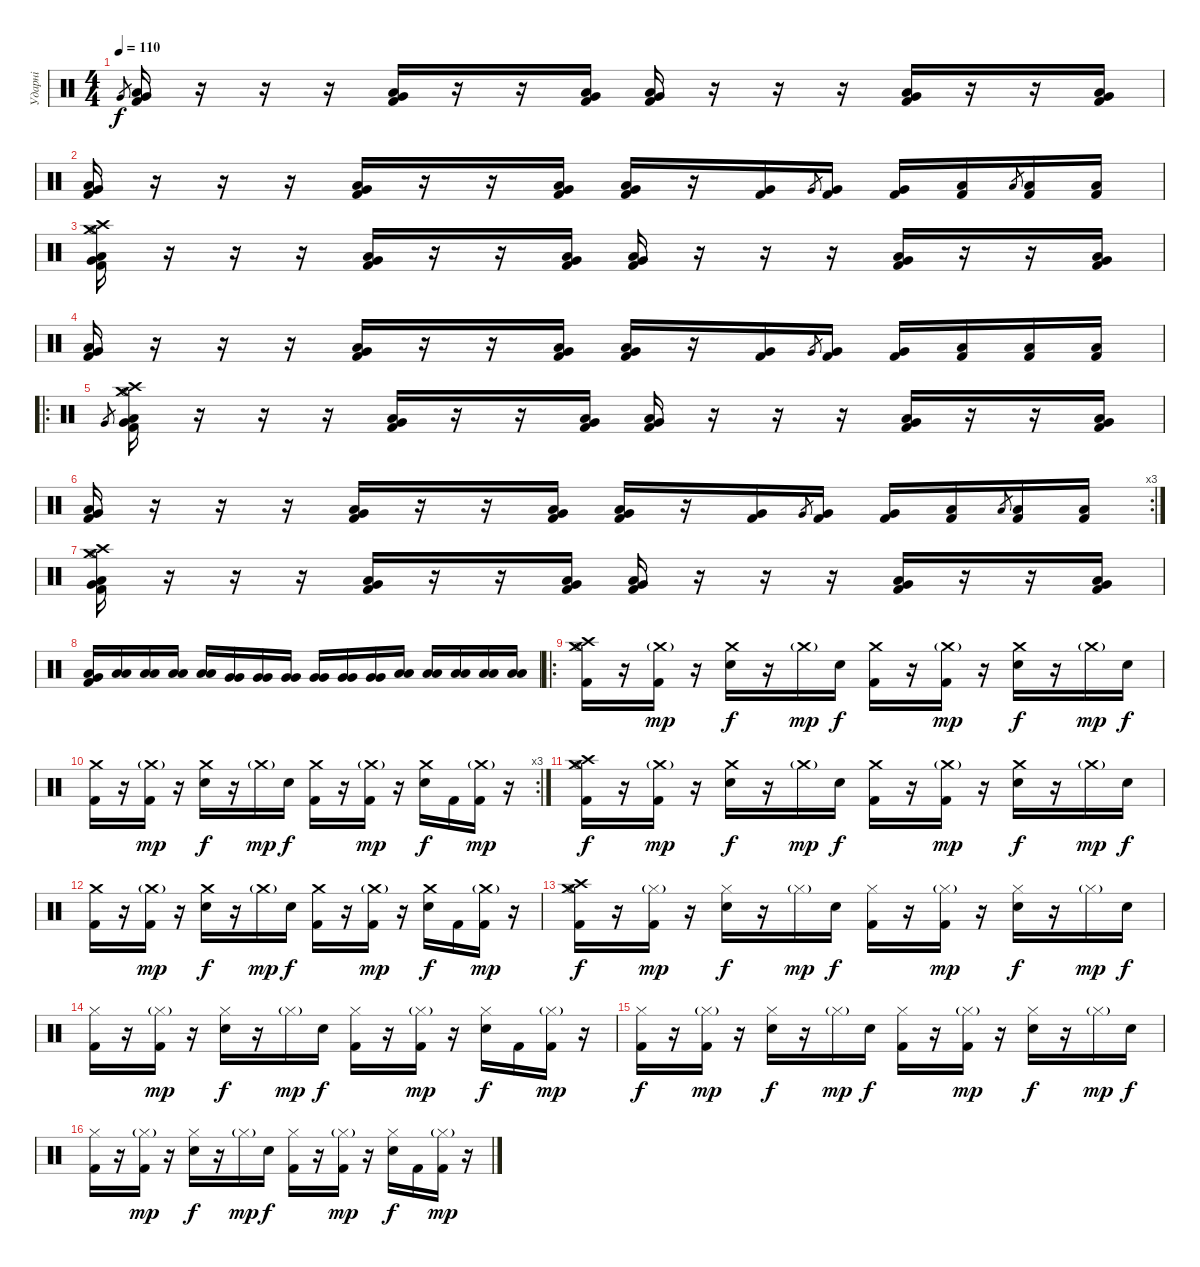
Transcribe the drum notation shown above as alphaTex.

\track ("Ударні" "Ударні") {instrument percussion}
\staff {score}
\articulation defaults
\ts (4 4)
\tempo 110
\clef neutral
\ks c "Very Low Tom (hit)".8{gr dy f}
("Low Floor Tom (hit)" "Kick (hit) 2" "Very Low Tom (hit)").16 r.16 r.16 r.16 ("Very Low Tom (hit)" "Low Floor Tom (hit)" "Kick (hit) 2").16 r.16 r.16 ("Low Floor Tom (hit)" "Kick (hit) 2" "Very Low Tom (hit)").16 ("Kick (hit) 2" "Low Floor Tom (hit)" "Very Low Tom (hit)").16 r.16 r.16 r.16 ("Very Low Tom (hit)" "Low Floor Tom (hit)" "Kick (hit) 2").16 r.16 r.16 ("Kick (hit) 2" "Low Floor Tom (hit)" "Very Low Tom (hit)").16 |
("Low Floor Tom (hit)" "Kick (hit) 2" "Very Low Tom (hit)").16 r.16 r.16 r.16 ("Very Low Tom (hit)" "Low Floor Tom (hit)" "Kick (hit) 2").16 r.16 r.16 ("Low Floor Tom (hit)" "Kick (hit) 2" "Very Low Tom (hit)").16 ("Kick (hit) 2" "Low Floor Tom (hit)" "Very Low Tom (hit)").16 r.16 ("Kick (hit) 2" "Very Low Tom (hit)").16 "Very Low Tom (hit)".8{gr} ("Kick (hit) 2" "Very Low Tom (hit)").16 ("Kick (hit) 2" "Very Low Tom (hit)").16 ("Kick (hit) 2" "Low Floor Tom (hit)").16 "Low Floor Tom (hit)".8{gr} ("Kick (hit) 2" "Low Floor Tom (hit)").16 ("Kick (hit) 2" "Low Floor Tom (hit)").16 |
("Low Floor Tom (hit)" "Kick (hit) 2" "Very Low Tom (hit)" "Hi-Hat (open)" "Crash medium (hit)" "Crash high (hit)").16 r.16 r.16 r.16 ("Very Low Tom (hit)" "Low Floor Tom (hit)" "Kick (hit) 2").16 r.16 r.16 ("Low Floor Tom (hit)" "Kick (hit) 2" "Very Low Tom (hit)").16 ("Kick (hit) 2" "Low Floor Tom (hit)" "Very Low Tom (hit)").16 r.16 r.16 r.16 ("Very Low Tom (hit)" "Low Floor Tom (hit)" "Kick (hit) 2").16 r.16 r.16 ("Kick (hit) 2" "Low Floor Tom (hit)" "Very Low Tom (hit)").16 |
("Low Floor Tom (hit)" "Kick (hit) 2" "Very Low Tom (hit)").16 r.16 r.16 r.16 ("Very Low Tom (hit)" "Low Floor Tom (hit)" "Kick (hit) 2").16 r.16 r.16 ("Low Floor Tom (hit)" "Kick (hit) 2" "Very Low Tom (hit)").16 ("Kick (hit) 2" "Low Floor Tom (hit)" "Very Low Tom (hit)").16 r.16 ("Kick (hit) 2" "Very Low Tom (hit)").16 "Very Low Tom (hit)".8{gr} ("Kick (hit) 2" "Very Low Tom (hit)").16 ("Kick (hit) 2" "Very Low Tom (hit)").16 ("Kick (hit) 2" "Low Floor Tom (hit)").16 ("Kick (hit) 2" "Low Floor Tom (hit)").16 ("Kick (hit) 2" "Low Floor Tom (hit)").16 |
\ro "Very Low Tom (hit)".8{gr}
("Low Floor Tom (hit)" "Kick (hit) 2" "Very Low Tom (hit)" "Hi-Hat (open)" "Crash medium (hit)" "Crash high (hit)").16 r.16 r.16 r.16 ("Very Low Tom (hit)" "Low Floor Tom (hit)" "Kick (hit) 2").16 r.16 r.16 ("Low Floor Tom (hit)" "Kick (hit) 2" "Very Low Tom (hit)").16 ("Kick (hit) 2" "Low Floor Tom (hit)" "Very Low Tom (hit)").16 r.16 r.16 r.16 ("Very Low Tom (hit)" "Low Floor Tom (hit)" "Kick (hit) 2").16 r.16 r.16 ("Kick (hit) 2" "Low Floor Tom (hit)" "Very Low Tom (hit)").16 |
\rc 3
("Low Floor Tom (hit)" "Kick (hit) 2" "Very Low Tom (hit)").16 r.16 r.16 r.16 ("Very Low Tom (hit)" "Low Floor Tom (hit)" "Kick (hit) 2").16 r.16 r.16 ("Low Floor Tom (hit)" "Kick (hit) 2" "Very Low Tom (hit)").16 ("Kick (hit) 2" "Low Floor Tom (hit)" "Very Low Tom (hit)").16 r.16 ("Kick (hit) 2" "Very Low Tom (hit)").16 "Very Low Tom (hit)".8{gr} ("Kick (hit) 2" "Very Low Tom (hit)").16 ("Kick (hit) 2" "Very Low Tom (hit)").16 ("Kick (hit) 2" "Low Floor Tom (hit)").16 "Low Floor Tom (hit)".8{gr} ("Kick (hit) 2" "Low Floor Tom (hit)").16 ("Kick (hit) 2" "Low Floor Tom (hit)").16 |
("Low Floor Tom (hit)" "Kick (hit) 2" "Very Low Tom (hit)" "Hi-Hat (open)" "Crash medium (hit)" "Crash high (hit)").16 r.16 r.16 r.16 ("Very Low Tom (hit)" "Low Floor Tom (hit)" "Kick (hit) 2").16 r.16 r.16 ("Low Floor Tom (hit)" "Kick (hit) 2" "Very Low Tom (hit)").16 ("Kick (hit) 2" "Low Floor Tom (hit)" "Very Low Tom (hit)").16 r.16 r.16 r.16 ("Very Low Tom (hit)" "Low Floor Tom (hit)" "Kick (hit) 2").16 r.16 r.16 ("Kick (hit) 2" "Low Floor Tom (hit)" "Very Low Tom (hit)").16 |
("Kick (hit) 2" "Low Floor Tom (hit)" "Very Low Tom (hit)").16 ("Low Tom (hit)" "Low Tom (hit)").16 ("Low Tom (hit)" "Low Tom (hit)").16 ("Low Tom (hit)" "Low Tom (hit)").16 ("Low Tom (hit)" "Low Tom (hit)").16 ("Very Low Tom (hit)" "Very Low Tom (hit)").16 ("Very Low Tom (hit)" "Very Low Tom (hit)").16 ("Very Low Tom (hit)" "Very Low Tom (hit)").16 ("Very Low Tom (hit)" "Very Low Tom (hit)").16 ("Very Low Tom (hit)" "Very Low Tom (hit)").16 ("Very Low Tom (hit)" "Very Low Tom (hit)").16 ("Low Floor Tom (hit)" "Low Floor Tom (hit)").16 ("Low Floor Tom (hit)" "Low Floor Tom (hit)").16 ("Low Floor Tom (hit)" "Low Floor Tom (hit)").16 ("Low Floor Tom (hit)" "Low Floor Tom (hit)").16 ("Low Floor Tom (hit)" "Low Floor Tom (hit)").16 |
\ro
("Crash high (hit)" "Crash medium (hit)" "Hi-Hat (open)" "Kick (hit) 2").16{volume 14} r.16 ("Crash medium (hit)"{g} "Kick (hit) 2").16{dy mp} r.16 ("Crash medium (hit)" "Electric Snare (hit)").16{dy f} r.16 "Crash medium (hit)"{g}.16{dy mp} "Electric Snare (hit)".16{dy f} ("Crash medium (hit)" "Kick (hit) 2").16 r.16 ("Crash medium (hit)"{g} "Kick (hit) 2").16{dy mp} r.16 ("Crash medium (hit)" "Electric Snare (hit)").16{dy f} r.16 "Crash medium (hit)"{g}.16{dy mp} "Electric Snare (hit)".16{dy f} |
\rc 3
("Crash medium (hit)" "Kick (hit) 2").16{volume 14} r.16 ("Crash medium (hit)"{g} "Kick (hit) 2").16{dy mp} r.16 ("Crash medium (hit)" "Electric Snare (hit)").16{dy f} r.16 "Crash medium (hit)"{g}.16{dy mp} "Electric Snare (hit)".16{dy f} ("Crash medium (hit)" "Kick (hit) 2").16 r.16 ("Crash medium (hit)"{g} "Kick (hit) 2").16{dy mp} r.16 ("Crash medium (hit)" "Electric Snare (hit)").16{dy f} "Kick (hit) 2".16 ("Crash medium (hit)"{g} "Kick (hit) 2").16{dy mp} r.16 |
("Crash high (hit)" "Crash medium (hit)" "Hi-Hat (open)" "Kick (hit) 2").16{dy f volume 14} r.16 ("Crash medium (hit)"{g} "Kick (hit) 2").16{dy mp} r.16 ("Crash medium (hit)" "Electric Snare (hit)").16{dy f} r.16 "Crash medium (hit)"{g}.16{dy mp} "Electric Snare (hit)".16{dy f} ("Crash medium (hit)" "Kick (hit) 2").16 r.16 ("Crash medium (hit)"{g} "Kick (hit) 2").16{dy mp} r.16 ("Crash medium (hit)" "Electric Snare (hit)").16{dy f} r.16 "Crash medium (hit)"{g}.16{dy mp} "Electric Snare (hit)".16{dy f} |
("Crash medium (hit)" "Kick (hit) 2").16{volume 14} r.16 ("Crash medium (hit)"{g} "Kick (hit) 2").16{dy mp} r.16 ("Crash medium (hit)" "Electric Snare (hit)").16{dy f} r.16 "Crash medium (hit)"{g}.16{dy mp} "Electric Snare (hit)".16{dy f} ("Crash medium (hit)" "Kick (hit) 2").16 r.16 ("Crash medium (hit)"{g} "Kick (hit) 2").16{dy mp} r.16 ("Crash medium (hit)" "Electric Snare (hit)").16{dy f} "Kick (hit) 2".16 ("Crash medium (hit)"{g} "Kick (hit) 2").16{dy mp} r.16 |
("Crash high (hit)" "Crash medium (hit)" "Hi-Hat (open)" "Kick (hit) 2").16{dy f volume 14} r.16 ("Hi-Hat (closed)"{g} "Kick (hit) 2").16{dy mp} r.16 ("Hi-Hat (closed)" "Electric Snare (hit)").16{dy f} r.16 "Hi-Hat (closed)"{g}.16{dy mp} "Electric Snare (hit)".16{dy f} ("Hi-Hat (closed)" "Kick (hit) 2").16 r.16 ("Hi-Hat (closed)"{g} "Kick (hit) 2").16{dy mp} r.16 ("Hi-Hat (closed)" "Electric Snare (hit)").16{dy f} r.16 "Hi-Hat (closed)"{g}.16{dy mp} "Electric Snare (hit)".16{dy f} |
("Hi-Hat (closed)" "Kick (hit) 2").16{volume 14} r.16 ("Hi-Hat (closed)"{g} "Kick (hit) 2").16{dy mp} r.16 ("Hi-Hat (closed)" "Electric Snare (hit)").16{dy f} r.16 "Hi-Hat (closed)"{g}.16{dy mp} "Electric Snare (hit)".16{dy f} ("Hi-Hat (closed)" "Kick (hit) 2").16 r.16 ("Hi-Hat (closed)"{g} "Kick (hit) 2").16{dy mp} r.16 ("Hi-Hat (closed)" "Electric Snare (hit)").16{dy f} "Kick (hit) 2".16 ("Hi-Hat (closed)"{g} "Kick (hit) 2").16{dy mp} r.16 |
("Hi-Hat (closed)" "Kick (hit) 2").16{dy f volume 14} r.16 ("Hi-Hat (closed)"{g} "Kick (hit) 2").16{dy mp} r.16 ("Hi-Hat (closed)" "Electric Snare (hit)").16{dy f} r.16 "Hi-Hat (closed)"{g}.16{dy mp} "Electric Snare (hit)".16{dy f} ("Hi-Hat (closed)" "Kick (hit) 2").16 r.16 ("Hi-Hat (closed)"{g} "Kick (hit) 2").16{dy mp} r.16 ("Hi-Hat (closed)" "Electric Snare (hit)").16{dy f} r.16 "Hi-Hat (closed)"{g}.16{dy mp} "Electric Snare (hit)".16{dy f} |
("Hi-Hat (closed)" "Kick (hit) 2").16{volume 14} r.16 ("Hi-Hat (closed)"{g} "Kick (hit) 2").16{dy mp} r.16 ("Hi-Hat (closed)" "Electric Snare (hit)").16{dy f} r.16 "Hi-Hat (closed)"{g}.16{dy mp} "Electric Snare (hit)".16{dy f} ("Hi-Hat (closed)" "Kick (hit) 2").16 r.16 ("Hi-Hat (closed)"{g} "Kick (hit) 2").16{dy mp} r.16 ("Hi-Hat (closed)" "Electric Snare (hit)").16{dy f} "Kick (hit) 2".16 ("Hi-Hat (closed)"{g} "Kick (hit) 2").16{dy mp} r.16
